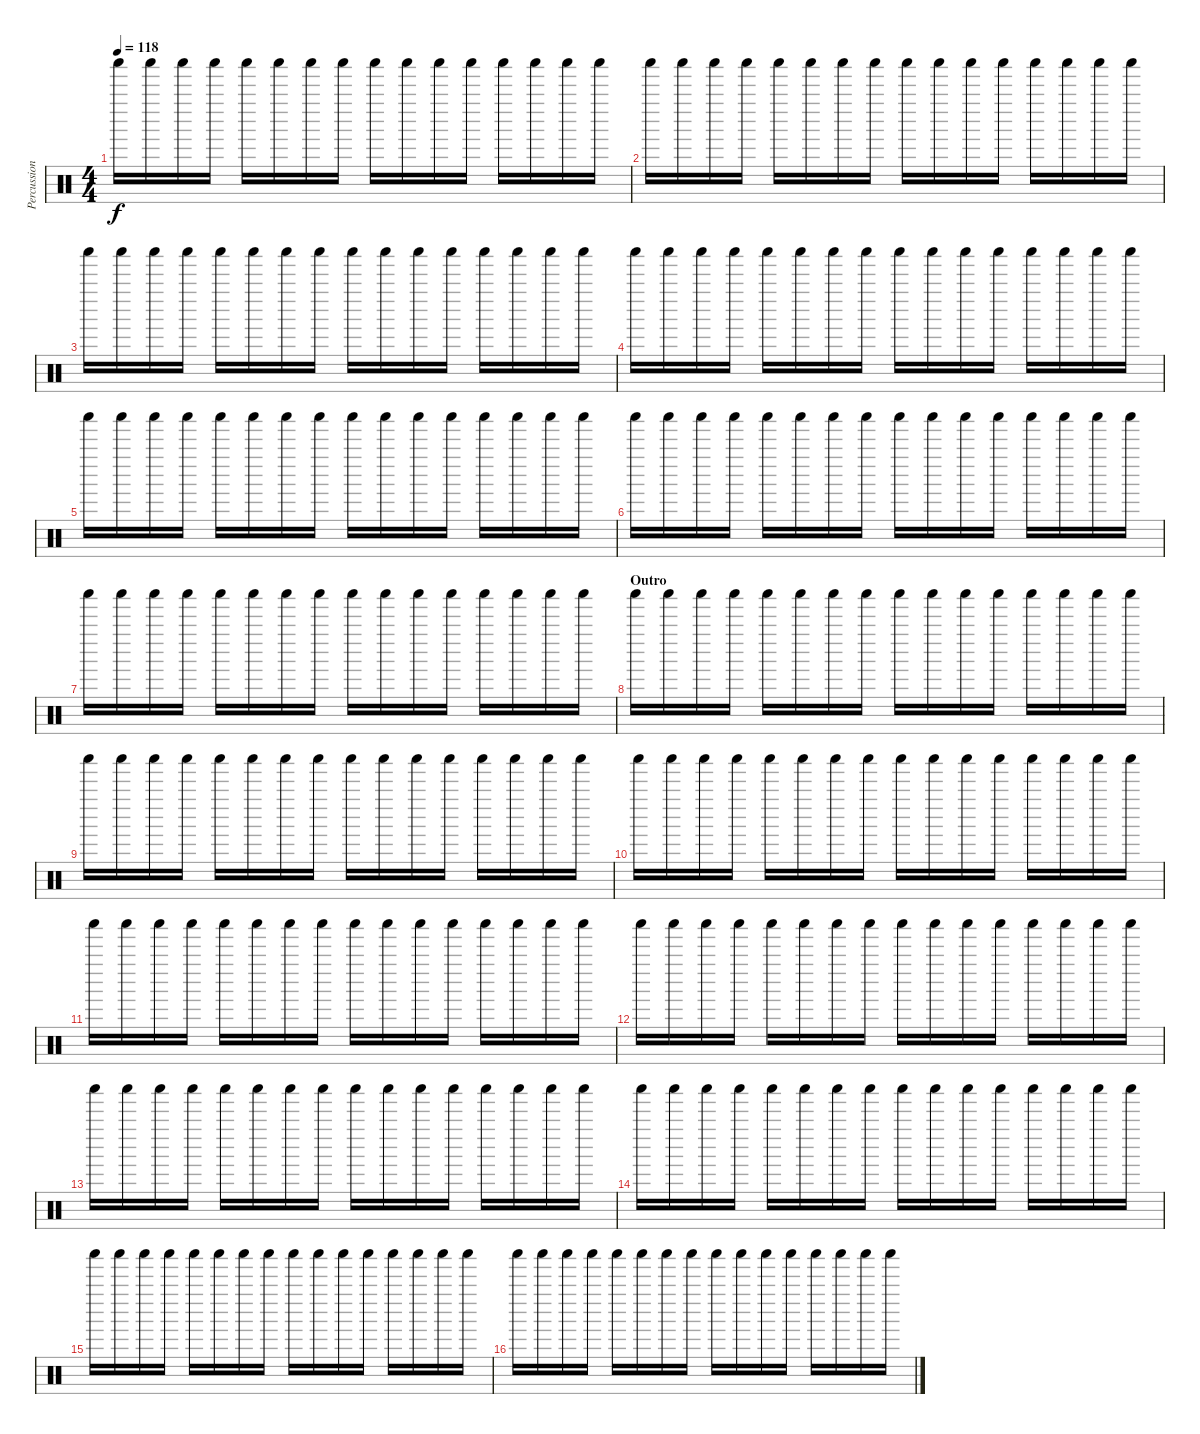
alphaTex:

\track ("Percussion" "Percussion") {instrument percussion}
\staff {score}
\articulation defaults
\ts (4 4)
\tempo 118
\clef neutral
\ks c "Shaker (hit)".16{dy f} "Shaker (hit)".16 "Shaker (hit)".16 "Shaker (hit)".16 "Shaker (hit)".16 "Shaker (hit)".16 "Shaker (hit)".16 "Shaker (hit)".16 "Shaker (hit)".16 "Shaker (hit)".16 "Shaker (hit)".16 "Shaker (hit)".16 "Shaker (hit)".16 "Shaker (hit)".16 "Shaker (hit)".16 "Shaker (hit)".16
|
"Shaker (hit)".16 "Shaker (hit)".16 "Shaker (hit)".16 "Shaker (hit)".16 "Shaker (hit)".16 "Shaker (hit)".16 "Shaker (hit)".16 "Shaker (hit)".16 "Shaker (hit)".16 "Shaker (hit)".16 "Shaker (hit)".16 "Shaker (hit)".16 "Shaker (hit)".16 "Shaker (hit)".16 "Shaker (hit)".16 "Shaker (hit)".16 |
"Shaker (hit)".16 "Shaker (hit)".16 "Shaker (hit)".16 "Shaker (hit)".16 "Shaker (hit)".16 "Shaker (hit)".16 "Shaker (hit)".16 "Shaker (hit)".16 "Shaker (hit)".16 "Shaker (hit)".16 "Shaker (hit)".16 "Shaker (hit)".16 "Shaker (hit)".16 "Shaker (hit)".16 "Shaker (hit)".16 "Shaker (hit)".16 |
"Shaker (hit)".16 "Shaker (hit)".16 "Shaker (hit)".16 "Shaker (hit)".16 "Shaker (hit)".16 "Shaker (hit)".16 "Shaker (hit)".16 "Shaker (hit)".16 "Shaker (hit)".16 "Shaker (hit)".16 "Shaker (hit)".16 "Shaker (hit)".16 "Shaker (hit)".16 "Shaker (hit)".16 "Shaker (hit)".16 "Shaker (hit)".16 |
"Shaker (hit)".16 "Shaker (hit)".16 "Shaker (hit)".16 "Shaker (hit)".16 "Shaker (hit)".16 "Shaker (hit)".16 "Shaker (hit)".16 "Shaker (hit)".16 "Shaker (hit)".16 "Shaker (hit)".16 "Shaker (hit)".16 "Shaker (hit)".16 "Shaker (hit)".16 "Shaker (hit)".16 "Shaker (hit)".16 "Shaker (hit)".16 |
"Shaker (hit)".16 "Shaker (hit)".16 "Shaker (hit)".16 "Shaker (hit)".16 "Shaker (hit)".16 "Shaker (hit)".16 "Shaker (hit)".16 "Shaker (hit)".16 "Shaker (hit)".16 "Shaker (hit)".16 "Shaker (hit)".16 "Shaker (hit)".16 "Shaker (hit)".16 "Shaker (hit)".16 "Shaker (hit)".16 "Shaker (hit)".16 |
"Shaker (hit)".16 "Shaker (hit)".16 "Shaker (hit)".16 "Shaker (hit)".16 "Shaker (hit)".16 "Shaker (hit)".16 "Shaker (hit)".16 "Shaker (hit)".16 "Shaker (hit)".16 "Shaker (hit)".16 "Shaker (hit)".16 "Shaker (hit)".16 "Shaker (hit)".16 "Shaker (hit)".16 "Shaker (hit)".16 "Shaker (hit)".16 |
\section ("" "Outro")
"Shaker (hit)".16 "Shaker (hit)".16 "Shaker (hit)".16 "Shaker (hit)".16 "Shaker (hit)".16 "Shaker (hit)".16 "Shaker (hit)".16 "Shaker (hit)".16 "Shaker (hit)".16 "Shaker (hit)".16 "Shaker (hit)".16 "Shaker (hit)".16 "Shaker (hit)".16 "Shaker (hit)".16 "Shaker (hit)".16 "Shaker (hit)".16 |
"Shaker (hit)".16 "Shaker (hit)".16 "Shaker (hit)".16 "Shaker (hit)".16 "Shaker (hit)".16 "Shaker (hit)".16 "Shaker (hit)".16 "Shaker (hit)".16 "Shaker (hit)".16 "Shaker (hit)".16 "Shaker (hit)".16 "Shaker (hit)".16 "Shaker (hit)".16 "Shaker (hit)".16 "Shaker (hit)".16 "Shaker (hit)".16 |
"Shaker (hit)".16 "Shaker (hit)".16 "Shaker (hit)".16 "Shaker (hit)".16 "Shaker (hit)".16 "Shaker (hit)".16 "Shaker (hit)".16 "Shaker (hit)".16 "Shaker (hit)".16 "Shaker (hit)".16 "Shaker (hit)".16 "Shaker (hit)".16 "Shaker (hit)".16 "Shaker (hit)".16 "Shaker (hit)".16 "Shaker (hit)".16 |
"Shaker (hit)".16 "Shaker (hit)".16 "Shaker (hit)".16 "Shaker (hit)".16 "Shaker (hit)".16 "Shaker (hit)".16 "Shaker (hit)".16 "Shaker (hit)".16 "Shaker (hit)".16 "Shaker (hit)".16 "Shaker (hit)".16 "Shaker (hit)".16 "Shaker (hit)".16 "Shaker (hit)".16 "Shaker (hit)".16 "Shaker (hit)".16 |
"Shaker (hit)".16 "Shaker (hit)".16 "Shaker (hit)".16 "Shaker (hit)".16 "Shaker (hit)".16 "Shaker (hit)".16 "Shaker (hit)".16 "Shaker (hit)".16 "Shaker (hit)".16 "Shaker (hit)".16 "Shaker (hit)".16 "Shaker (hit)".16 "Shaker (hit)".16 "Shaker (hit)".16 "Shaker (hit)".16 "Shaker (hit)".16 |
"Shaker (hit)".16 "Shaker (hit)".16 "Shaker (hit)".16 "Shaker (hit)".16 "Shaker (hit)".16 "Shaker (hit)".16 "Shaker (hit)".16 "Shaker (hit)".16 "Shaker (hit)".16 "Shaker (hit)".16 "Shaker (hit)".16 "Shaker (hit)".16 "Shaker (hit)".16 "Shaker (hit)".16 "Shaker (hit)".16 "Shaker (hit)".16 |
"Shaker (hit)".16 "Shaker (hit)".16 "Shaker (hit)".16 "Shaker (hit)".16 "Shaker (hit)".16 "Shaker (hit)".16 "Shaker (hit)".16 "Shaker (hit)".16 "Shaker (hit)".16 "Shaker (hit)".16 "Shaker (hit)".16 "Shaker (hit)".16 "Shaker (hit)".16 "Shaker (hit)".16 "Shaker (hit)".16 "Shaker (hit)".16 |
"Shaker (hit)".16 "Shaker (hit)".16 "Shaker (hit)".16 "Shaker (hit)".16 "Shaker (hit)".16 "Shaker (hit)".16 "Shaker (hit)".16 "Shaker (hit)".16 "Shaker (hit)".16 "Shaker (hit)".16 "Shaker (hit)".16 "Shaker (hit)".16 "Shaker (hit)".16 "Shaker (hit)".16 "Shaker (hit)".16 "Shaker (hit)".16 |
"Shaker (hit)".16 "Shaker (hit)".16 "Shaker (hit)".16 "Shaker (hit)".16 "Shaker (hit)".16 "Shaker (hit)".16 "Shaker (hit)".16 "Shaker (hit)".16 "Shaker (hit)".16 "Shaker (hit)".16 "Shaker (hit)".16 "Shaker (hit)".16 "Shaker (hit)".16 "Shaker (hit)".16 "Shaker (hit)".16 "Shaker (hit)".16
